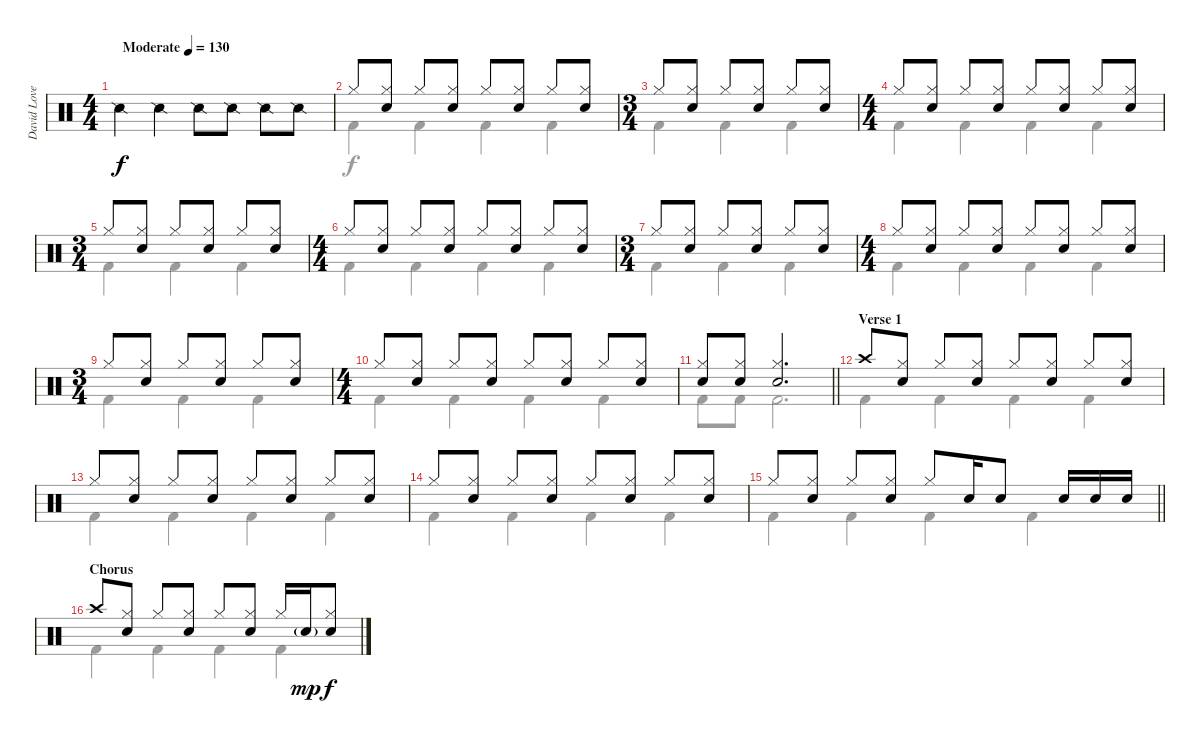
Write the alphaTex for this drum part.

\track ("David Lovering" "David Love") {instrument percussion}
\staff {score}
\articulation defaults
\voice
\ts (4 4)
\tempo (130 "Moderate")
\clef neutral
\ks c "Snare (side stick) 2".4{dy f} "Snare (side stick) 2".4 "Snare (side stick) 2".8 "Snare (side stick) 2".8 "Snare (side stick) 2".8 "Snare (side stick) 2".8
|
"Hi-Hat (closed)".8 ("Hi-Hat (closed)" "Snare (hit) 2").8 "Hi-Hat (closed)".8 ("Hi-Hat (closed)" "Snare (hit) 2").8 "Hi-Hat (closed)".8 ("Hi-Hat (closed)" "Snare (hit) 2").8 "Hi-Hat (closed)".8 ("Hi-Hat (closed)" "Snare (hit) 2").8 |
\ts (3 4)
"Hi-Hat (closed)".8 ("Hi-Hat (closed)" "Snare (hit) 2").8 "Hi-Hat (closed)".8 ("Hi-Hat (closed)" "Snare (hit) 2").8 "Hi-Hat (closed)".8 ("Hi-Hat (closed)" "Snare (hit) 2").8 |
\ts (4 4)
"Hi-Hat (closed)".8 ("Hi-Hat (closed)" "Snare (hit) 2").8 "Hi-Hat (closed)".8 ("Hi-Hat (closed)" "Snare (hit) 2").8 "Hi-Hat (closed)".8 ("Hi-Hat (closed)" "Snare (hit) 2").8 "Hi-Hat (closed)".8 ("Hi-Hat (closed)" "Snare (hit) 2").8 |
\ts (3 4)
"Hi-Hat (closed)".8 ("Hi-Hat (closed)" "Snare (hit) 2").8 "Hi-Hat (closed)".8 ("Hi-Hat (closed)" "Snare (hit) 2").8 "Hi-Hat (closed)".8 ("Hi-Hat (closed)" "Snare (hit) 2").8 |
\ts (4 4)
"Hi-Hat (closed)".8 ("Hi-Hat (closed)" "Snare (hit) 2").8 "Hi-Hat (closed)".8 ("Hi-Hat (closed)" "Snare (hit) 2").8 "Hi-Hat (closed)".8 ("Hi-Hat (closed)" "Snare (hit) 2").8 "Hi-Hat (closed)".8 ("Hi-Hat (closed)" "Snare (hit) 2").8 |
\ts (3 4)
"Hi-Hat (closed)".8 ("Hi-Hat (closed)" "Snare (hit) 2").8 "Hi-Hat (closed)".8 ("Hi-Hat (closed)" "Snare (hit) 2").8 "Hi-Hat (closed)".8 ("Hi-Hat (closed)" "Snare (hit) 2").8 |
\ts (4 4)
"Hi-Hat (closed)".8 ("Hi-Hat (closed)" "Snare (hit) 2").8 "Hi-Hat (closed)".8 ("Hi-Hat (closed)" "Snare (hit) 2").8 "Hi-Hat (closed)".8 ("Hi-Hat (closed)" "Snare (hit) 2").8 "Hi-Hat (closed)".8 ("Hi-Hat (closed)" "Snare (hit) 2").8 |
\ts (3 4)
"Hi-Hat (closed)".8 ("Hi-Hat (closed)" "Snare (hit) 2").8 "Hi-Hat (closed)".8 ("Hi-Hat (closed)" "Snare (hit) 2").8 "Hi-Hat (closed)".8 ("Hi-Hat (closed)" "Snare (hit) 2").8 |
\ts (4 4)
"Hi-Hat (closed)".8 ("Hi-Hat (closed)" "Snare (hit) 2").8 "Hi-Hat (closed)".8 ("Hi-Hat (closed)" "Snare (hit) 2").8 "Hi-Hat (closed)".8 ("Hi-Hat (closed)" "Snare (hit) 2").8 "Hi-Hat (closed)".8 ("Hi-Hat (closed)" "Snare (hit) 2").8 |
\barLineRight lightlight
("Hi-Hat (closed)" "Snare (hit) 2").8 ("Hi-Hat (closed)" "Snare (hit) 2").8 ("Hi-Hat (closed)" "Snare (hit) 2").2{d} |
\section ("" "Verse 1")
"Crash high (hit)".8 ("Hi-Hat (closed)" "Snare (hit) 2").8 "Hi-Hat (closed)".8 ("Hi-Hat (closed)" "Snare (hit) 2").8 "Hi-Hat (closed)".8 ("Hi-Hat (closed)" "Snare (hit) 2").8 "Hi-Hat (closed)".8 ("Hi-Hat (closed)" "Snare (hit) 2").8 |
"Hi-Hat (closed)".8 ("Hi-Hat (closed)" "Snare (hit) 2").8 "Hi-Hat (closed)".8 ("Hi-Hat (closed)" "Snare (hit) 2").8 "Hi-Hat (closed)".8 ("Hi-Hat (closed)" "Snare (hit) 2").8 "Hi-Hat (closed)".8 ("Hi-Hat (closed)" "Snare (hit) 2").8 |
"Hi-Hat (closed)".8 ("Hi-Hat (closed)" "Snare (hit) 2").8 "Hi-Hat (closed)".8 ("Hi-Hat (closed)" "Snare (hit) 2").8 "Hi-Hat (closed)".8 ("Hi-Hat (closed)" "Snare (hit) 2").8 "Hi-Hat (closed)".8 ("Hi-Hat (closed)" "Snare (hit) 2").8 |
\barLineRight lightlight "Hi-Hat (closed)".8
("Hi-Hat (closed)" "Snare (hit) 2").8 "Hi-Hat (closed)".8 ("Hi-Hat (closed)" "Snare (hit) 2").8 "Hi-Hat (closed)".8 "Snare (hit) 2".16 "Snare (hit) 2".8 "Snare (hit) 2".16 "Snare (hit) 2".16 "Snare (hit) 2".16 |
\section ("" "Chorus")
"Crash high (hit)".8 ("Hi-Hat (closed)" "Snare (hit) 2").8 "Hi-Hat (closed)".8 ("Hi-Hat (closed)" "Snare (hit) 2").8 "Hi-Hat (closed)".8 ("Hi-Hat (closed)" "Snare (hit) 2").8 "Hi-Hat (closed)".16 "Snare (hit) 2"{g}.16{dy mp} ("Hi-Hat (closed)" "Snare (hit) 2").8{dy f}
\voice
\clef neutral
\ottava regular
\simile none
\ks c
|
"Kick (hit) 2".4 "Kick (hit) 2".4 "Kick (hit) 2".4 "Kick (hit) 2".4 |
"Kick (hit) 2".4 "Kick (hit) 2".4 "Kick (hit) 2".4 |
"Kick (hit) 2".4 "Kick (hit) 2".4 "Kick (hit) 2".4 "Kick (hit) 2".4 |
"Kick (hit) 2".4 "Kick (hit) 2".4 "Kick (hit) 2".4 |
"Kick (hit) 2".4 "Kick (hit) 2".4 "Kick (hit) 2".4 "Kick (hit) 2".4 |
"Kick (hit) 2".4 "Kick (hit) 2".4 "Kick (hit) 2".4 |
"Kick (hit) 2".4 "Kick (hit) 2".4 "Kick (hit) 2".4 "Kick (hit) 2".4 |
"Kick (hit) 2".4 "Kick (hit) 2".4 "Kick (hit) 2".4 |
"Kick (hit) 2".4 "Kick (hit) 2".4 "Kick (hit) 2".4 "Kick (hit) 2".4 |
\barLineRight lightlight "Kick (hit) 2".8 "Kick (hit) 2".8 "Kick (hit) 2".2{d}
|
"Kick (hit) 2".4 "Kick (hit) 2".4 "Kick (hit) 2".4 "Kick (hit) 2".4 |
"Kick (hit) 2".4 "Kick (hit) 2".4 "Kick (hit) 2".4 "Kick (hit) 2".4 |
"Kick (hit) 2".4 "Kick (hit) 2".4 "Kick (hit) 2".4 "Kick (hit) 2".4 |
\barLineRight lightlight "Kick (hit) 2".4 "Kick (hit) 2".4 "Kick (hit) 2".4 "Kick (hit) 2".4
|
"Kick (hit) 2".4 "Kick (hit) 2".4 "Kick (hit) 2".4 "Kick (hit) 2".4
